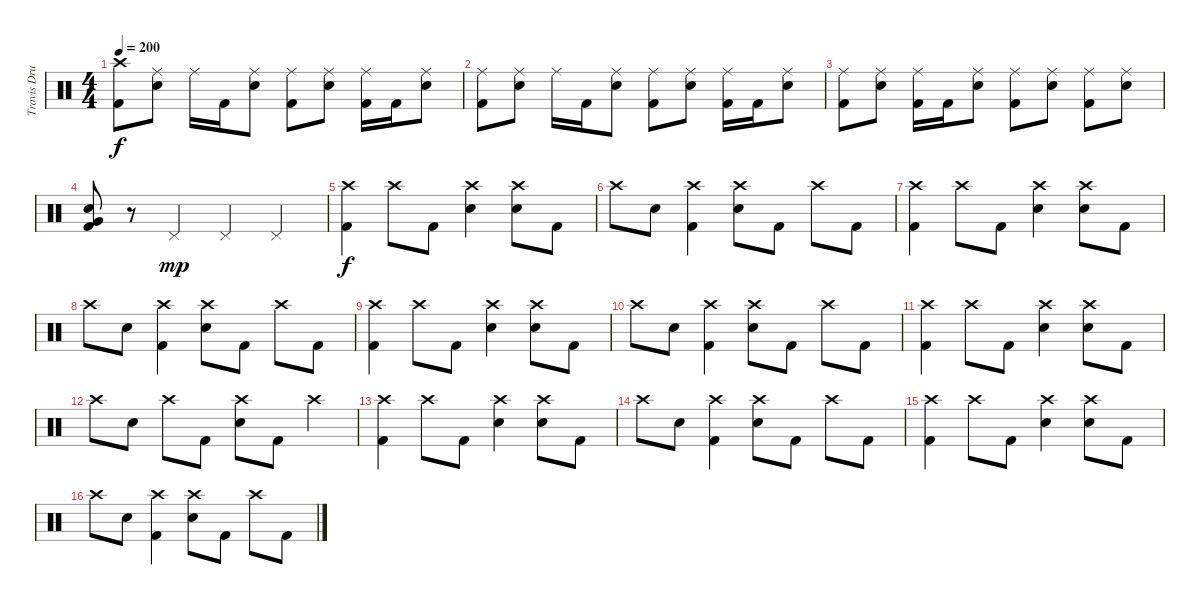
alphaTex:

\track ("Travis Drums" "Travis Dru") {instrument percussion}
\staff {score}
\articulation defaults
\ts (4 4)
\tempo 200
\clef neutral
\ks c
("Crash high (hit)" "Kick (hit) 2").8{dy f} ("Ride (middle)" "Electric Snare (hit)").8 "Ride (middle)".16 "Kick (hit) 2".16 ("Ride (middle)" "Electric Snare (hit)").8 ("Ride (middle)" "Kick (hit) 2").8 ("Ride (middle)" "Electric Snare (hit)").8 ("Ride (middle)" "Kick (hit) 2").16 "Kick (hit) 2".16 ("Ride (middle)" "Electric Snare (hit)").8 |
("Ride (middle)" "Kick (hit) 2").8 ("Ride (middle)" "Electric Snare (hit)").8 "Ride (middle)".16 "Kick (hit) 2".16 ("Ride (middle)" "Electric Snare (hit)").8 ("Ride (middle)" "Kick (hit) 2").8 ("Ride (middle)" "Electric Snare (hit)").8 ("Ride (middle)" "Kick (hit) 2").16 "Kick (hit) 2".16 ("Ride (middle)" "Electric Snare (hit)").8 |
("Ride (middle)" "Kick (hit) 2").8 ("Ride (middle)" "Electric Snare (hit)").8 ("Ride (middle)" "Kick (hit) 2").16 "Kick (hit) 2".16 ("Ride (middle)" "Electric Snare (hit)").8 ("Ride (middle)" "Kick (hit) 2").8 ("Ride (middle)" "Electric Snare (hit)").8 ("Ride (middle)" "Kick (hit) 2").8 ("Ride (middle)" "Electric Snare (hit)").8 |
("Very Low Tom (hit)" "Electric Snare (hit)" "Kick (hit) 2").8 r.8 "Pedal Hi-Hat (hit)".4{dy mp} "Pedal Hi-Hat (hit)".4 "Pedal Hi-Hat (hit)".4 |
("Crash high (hit)" "Kick (hit) 2").4{dy f} "Crash high (hit)".8 "Kick (hit) 2".8 ("Crash high (hit)" "Electric Snare (hit)").4 ("Crash high (hit)" "Electric Snare (hit)").8 "Kick (hit) 2".8 |
"Crash high (hit)".8 "Electric Snare (hit)".8 ("Crash high (hit)" "Kick (hit) 2").4 ("Crash high (hit)" "Electric Snare (hit)").8 "Kick (hit) 2".8 "Crash high (hit)".8 "Kick (hit) 2".8 |
("Crash high (hit)" "Kick (hit) 2").4 "Crash high (hit)".8 "Kick (hit) 2".8 ("Crash high (hit)" "Electric Snare (hit)").4 ("Crash high (hit)" "Electric Snare (hit)").8 "Kick (hit) 2".8 |
"Crash high (hit)".8 "Electric Snare (hit)".8 ("Crash high (hit)" "Kick (hit) 2").4 ("Crash high (hit)" "Electric Snare (hit)").8 "Kick (hit) 2".8 "Crash high (hit)".8 "Kick (hit) 2".8 |
("Crash high (hit)" "Kick (hit) 2").4 "Crash high (hit)".8 "Kick (hit) 2".8 ("Crash high (hit)" "Electric Snare (hit)").4 ("Crash high (hit)" "Electric Snare (hit)").8 "Kick (hit) 2".8 |
"Crash high (hit)".8 "Electric Snare (hit)".8 ("Crash high (hit)" "Kick (hit) 2").4 ("Crash high (hit)" "Electric Snare (hit)").8 "Kick (hit) 2".8 "Crash high (hit)".8 "Kick (hit) 2".8 |
("Crash high (hit)" "Kick (hit) 2").4 "Crash high (hit)".8 "Kick (hit) 2".8 ("Crash high (hit)" "Electric Snare (hit)").4 ("Crash high (hit)" "Electric Snare (hit)").8 "Kick (hit) 2".8 |
"Crash high (hit)".8 "Electric Snare (hit)".8 "Crash high (hit)".8 "Kick (hit) 2".8 ("Crash high (hit)" "Electric Snare (hit)").8 "Kick (hit) 2".8 "Crash high (hit)".4 |
("Crash high (hit)" "Kick (hit) 2").4 "Crash high (hit)".8 "Kick (hit) 2".8 ("Crash high (hit)" "Electric Snare (hit)").4 ("Crash high (hit)" "Electric Snare (hit)").8 "Kick (hit) 2".8 |
"Crash high (hit)".8 "Electric Snare (hit)".8 ("Crash high (hit)" "Kick (hit) 2").4 ("Crash high (hit)" "Electric Snare (hit)").8 "Kick (hit) 2".8 "Crash high (hit)".8 "Kick (hit) 2".8 |
("Crash high (hit)" "Kick (hit) 2").4 "Crash high (hit)".8 "Kick (hit) 2".8 ("Crash high (hit)" "Electric Snare (hit)").4 ("Crash high (hit)" "Electric Snare (hit)").8 "Kick (hit) 2".8 |
"Crash high (hit)".8 "Electric Snare (hit)".8 ("Crash high (hit)" "Kick (hit) 2").4 ("Crash high (hit)" "Electric Snare (hit)").8 "Kick (hit) 2".8 "Crash high (hit)".8 "Kick (hit) 2".8
